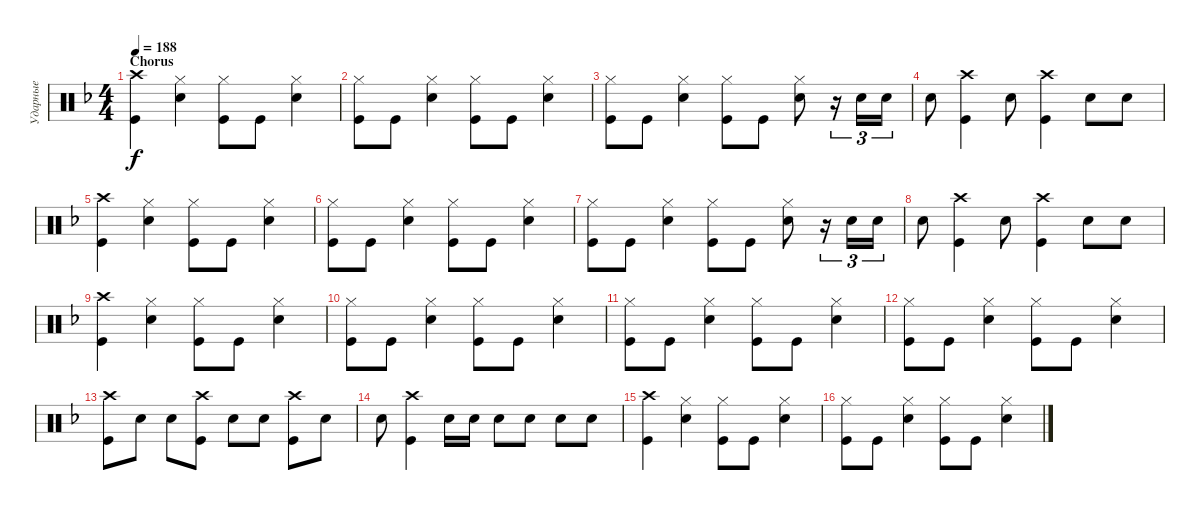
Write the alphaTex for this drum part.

\track ("Ударные" "Ударные") {instrument percussion}
\staff {score}
\articulation defaults
\ts (4 4)
\section ("" "Chorus")
\tempo 188
\clef neutral
\ks dminor
("Kick (hit)" "Crash high (hit)").4{dy f} ("Snare (hit) 2" "Hi-Hat (closed)").4 ("Kick (hit)" "Hi-Hat (closed)").8 "Kick (hit)".8 ("Hi-Hat (closed)" "Snare (hit) 2").4 |
("Kick (hit)" "Hi-Hat (closed)").8 "Kick (hit)".8 ("Snare (hit) 2" "Hi-Hat (closed)").4 ("Kick (hit)" "Hi-Hat (closed)").8 "Kick (hit)".8 ("Hi-Hat (closed)" "Snare (hit) 2").4 |
("Kick (hit)" "Hi-Hat (closed)").8 "Kick (hit)".8 ("Snare (hit) 2" "Hi-Hat (closed)").4 ("Kick (hit)" "Hi-Hat (closed)").8 "Kick (hit)".8 ("Hi-Hat (closed)" "Snare (hit) 2").8 r.16{tu (3 2)} "Snare (hit) 2".16{tu (3 2)} "Snare (hit) 2".16{tu (3 2)} |
"Snare (hit) 2".8 ("Kick (hit)" "Crash high (hit)").4 "Snare (hit) 2".8 ("Kick (hit)" "Crash high (hit)").4 "Snare (hit) 2".8 "Snare (hit) 2".8 |
("Kick (hit)" "Crash high (hit)").4 ("Snare (hit) 2" "Hi-Hat (closed)").4 ("Kick (hit)" "Hi-Hat (closed)").8 "Kick (hit)".8 ("Hi-Hat (closed)" "Snare (hit) 2").4 |
("Kick (hit)" "Hi-Hat (closed)").8 "Kick (hit)".8 ("Snare (hit) 2" "Hi-Hat (closed)").4 ("Kick (hit)" "Hi-Hat (closed)").8 "Kick (hit)".8 ("Hi-Hat (closed)" "Snare (hit) 2").4 |
("Kick (hit)" "Hi-Hat (closed)").8 "Kick (hit)".8 ("Snare (hit) 2" "Hi-Hat (closed)").4 ("Kick (hit)" "Hi-Hat (closed)").8 "Kick (hit)".8 ("Hi-Hat (closed)" "Snare (hit) 2").8 r.16{tu (3 2)} "Snare (hit) 2".16{tu (3 2)} "Snare (hit) 2".16{tu (3 2)} |
"Snare (hit) 2".8 ("Kick (hit)" "Crash high (hit)").4 "Snare (hit) 2".8 ("Kick (hit)" "Crash high (hit)").4 "Snare (hit) 2".8 "Snare (hit) 2".8 |
("Kick (hit)" "Crash high (hit)").4 ("Snare (hit) 2" "Hi-Hat (closed)").4 ("Kick (hit)" "Hi-Hat (closed)").8 "Kick (hit)".8 ("Hi-Hat (closed)" "Snare (hit) 2").4 |
("Kick (hit)" "Hi-Hat (closed)").8 "Kick (hit)".8 ("Snare (hit) 2" "Hi-Hat (closed)").4 ("Kick (hit)" "Hi-Hat (closed)").8 "Kick (hit)".8 ("Hi-Hat (closed)" "Snare (hit) 2").4 |
("Kick (hit)" "Hi-Hat (closed)").8 "Kick (hit)".8 ("Snare (hit) 2" "Hi-Hat (closed)").4 ("Kick (hit)" "Hi-Hat (closed)").8 "Kick (hit)".8 ("Hi-Hat (closed)" "Snare (hit) 2").4 |
("Kick (hit)" "Hi-Hat (closed)").8 "Kick (hit)".8 ("Snare (hit) 2" "Hi-Hat (closed)").4 ("Kick (hit)" "Hi-Hat (closed)").8 "Kick (hit)".8 ("Hi-Hat (closed)" "Snare (hit) 2").4 |
("Kick (hit)" "Crash high (hit)").8 "Snare (hit) 2".8 "Snare (hit) 2".8 ("Kick (hit)" "Crash high (hit)").8 "Snare (hit) 2".8 "Snare (hit) 2".8 ("Kick (hit)" "Crash high (hit)").8 "Snare (hit) 2".8 |
"Snare (hit) 2".8 ("Kick (hit)" "Crash high (hit)").4 "Snare (hit) 2".16 "Snare (hit) 2".16 "Snare (hit) 2".8 "Snare (hit) 2".8 "Snare (hit) 2".8 "Snare (hit) 2".8 |
("Kick (hit)" "Crash high (hit)").4 ("Snare (hit) 2" "Hi-Hat (closed)").4 ("Kick (hit)" "Hi-Hat (closed)").8 "Kick (hit)".8 ("Hi-Hat (closed)" "Snare (hit) 2").4 |
("Kick (hit)" "Hi-Hat (closed)").8 "Kick (hit)".8 ("Snare (hit) 2" "Hi-Hat (closed)").4 ("Kick (hit)" "Hi-Hat (closed)").8 "Kick (hit)".8 ("Hi-Hat (closed)" "Snare (hit) 2").4
